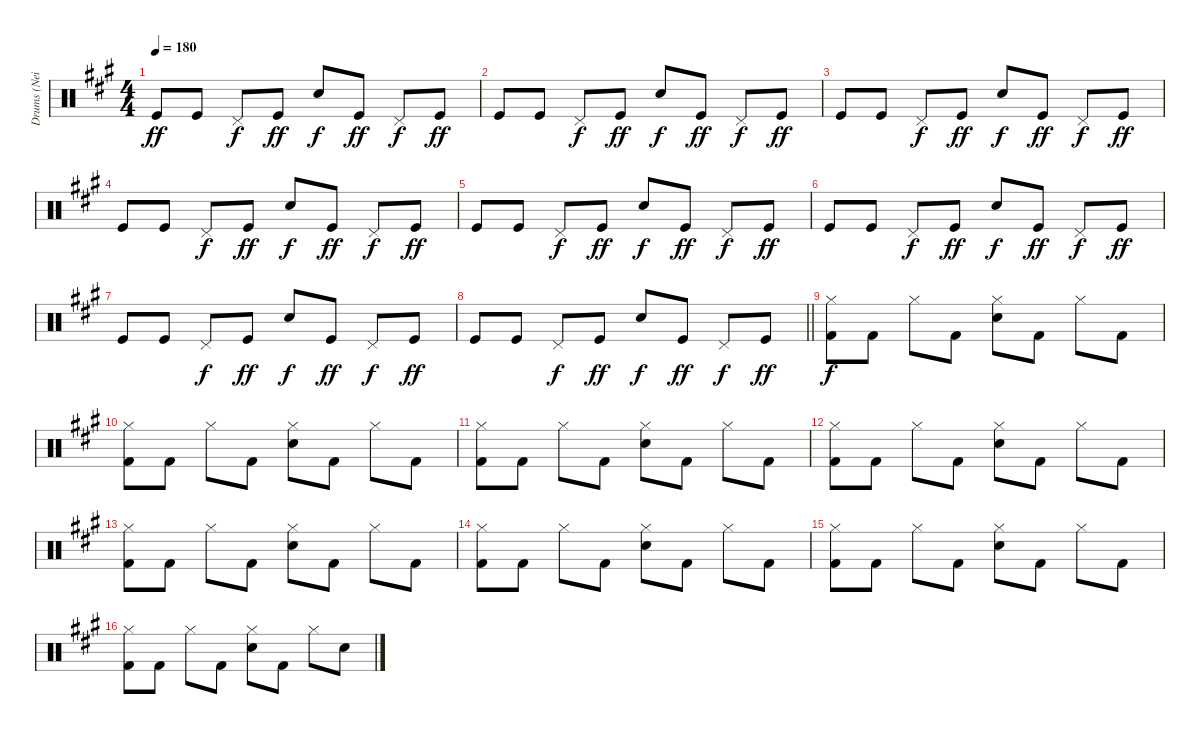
\track ("Drums (Neil Sanderson)" "Drums (Nei") {instrument percussion}
\staff {score}
\articulation defaults
\ts (4 4)
\tempo 180
\clef neutral
\ks f#minor "Kick (hit)".8{dy ff volume 8} "Kick (hit)".8 "Pedal Hi-Hat (hit)".8{dy f} "Kick (hit)".8{dy ff} "Electric Snare (hit)".8{dy f} "Kick (hit)".8{dy ff} "Pedal Hi-Hat (hit)".8{dy f} "Kick (hit)".8{dy ff}
|
"Kick (hit)".8 "Kick (hit)".8 "Pedal Hi-Hat (hit)".8{dy f} "Kick (hit)".8{dy ff} "Electric Snare (hit)".8{dy f} "Kick (hit)".8{dy ff} "Pedal Hi-Hat (hit)".8{dy f} "Kick (hit)".8{dy ff} |
"Kick (hit)".8 "Kick (hit)".8 "Pedal Hi-Hat (hit)".8{dy f} "Kick (hit)".8{dy ff} "Electric Snare (hit)".8{dy f} "Kick (hit)".8{dy ff} "Pedal Hi-Hat (hit)".8{dy f} "Kick (hit)".8{dy ff} |
"Kick (hit)".8 "Kick (hit)".8 "Pedal Hi-Hat (hit)".8{dy f} "Kick (hit)".8{dy ff} "Electric Snare (hit)".8{dy f} "Kick (hit)".8{dy ff} "Pedal Hi-Hat (hit)".8{dy f} "Kick (hit)".8{dy ff} |
"Kick (hit)".8 "Kick (hit)".8 "Pedal Hi-Hat (hit)".8{dy f} "Kick (hit)".8{dy ff} "Electric Snare (hit)".8{dy f} "Kick (hit)".8{dy ff} "Pedal Hi-Hat (hit)".8{dy f} "Kick (hit)".8{dy ff} |
"Kick (hit)".8 "Kick (hit)".8 "Pedal Hi-Hat (hit)".8{dy f} "Kick (hit)".8{dy ff} "Electric Snare (hit)".8{dy f} "Kick (hit)".8{dy ff} "Pedal Hi-Hat (hit)".8{dy f} "Kick (hit)".8{dy ff} |
"Kick (hit)".8 "Kick (hit)".8 "Pedal Hi-Hat (hit)".8{dy f} "Kick (hit)".8{dy ff} "Electric Snare (hit)".8{dy f} "Kick (hit)".8{dy ff} "Pedal Hi-Hat (hit)".8{dy f} "Kick (hit)".8{dy ff} |
\barLineRight lightlight "Kick (hit)".8 "Kick (hit)".8 "Pedal Hi-Hat (hit)".8{dy f} "Kick (hit)".8{dy ff} "Electric Snare (hit)".8{dy f} "Kick (hit)".8{dy ff} "Pedal Hi-Hat (hit)".8{dy f} "Kick (hit)".8{dy ff}
|
("Hi-Hat (closed)" "Kick (hit) 2").8{dy f volume 16} "Kick (hit) 2".8 "Hi-Hat (closed)".8 "Kick (hit) 2".8 ("Hi-Hat (closed)" "Electric Snare (hit)").8 "Kick (hit) 2".8 "Hi-Hat (closed)".8 "Kick (hit) 2".8 |
("Hi-Hat (closed)" "Kick (hit) 2").8 "Kick (hit) 2".8 "Hi-Hat (closed)".8 "Kick (hit) 2".8 ("Hi-Hat (closed)" "Electric Snare (hit)").8 "Kick (hit) 2".8 "Hi-Hat (closed)".8 "Kick (hit) 2".8 |
("Hi-Hat (closed)" "Kick (hit) 2").8 "Kick (hit) 2".8 "Hi-Hat (closed)".8 "Kick (hit) 2".8 ("Hi-Hat (closed)" "Electric Snare (hit)").8 "Kick (hit) 2".8 "Hi-Hat (closed)".8 "Kick (hit) 2".8 |
("Hi-Hat (closed)" "Kick (hit) 2").8 "Kick (hit) 2".8 "Hi-Hat (closed)".8 "Kick (hit) 2".8 ("Hi-Hat (closed)" "Electric Snare (hit)").8 "Kick (hit) 2".8 "Hi-Hat (closed)".8 "Kick (hit) 2".8 |
("Hi-Hat (closed)" "Kick (hit) 2").8 "Kick (hit) 2".8 "Hi-Hat (closed)".8 "Kick (hit) 2".8 ("Hi-Hat (closed)" "Electric Snare (hit)").8 "Kick (hit) 2".8 "Hi-Hat (closed)".8 "Kick (hit) 2".8 |
("Hi-Hat (closed)" "Kick (hit) 2").8 "Kick (hit) 2".8 "Hi-Hat (closed)".8 "Kick (hit) 2".8 ("Hi-Hat (closed)" "Electric Snare (hit)").8 "Kick (hit) 2".8 "Hi-Hat (closed)".8 "Kick (hit) 2".8 |
("Hi-Hat (closed)" "Kick (hit) 2").8 "Kick (hit) 2".8 "Hi-Hat (closed)".8 "Kick (hit) 2".8 ("Hi-Hat (closed)" "Electric Snare (hit)").8 "Kick (hit) 2".8 "Hi-Hat (closed)".8 "Kick (hit) 2".8 |
("Hi-Hat (closed)" "Kick (hit) 2").8 "Kick (hit) 2".8 "Hi-Hat (closed)".8 "Kick (hit) 2".8 ("Hi-Hat (closed)" "Electric Snare (hit)").8 "Kick (hit) 2".8 "Hi-Hat (closed)".8 "Electric Snare (hit)".8
